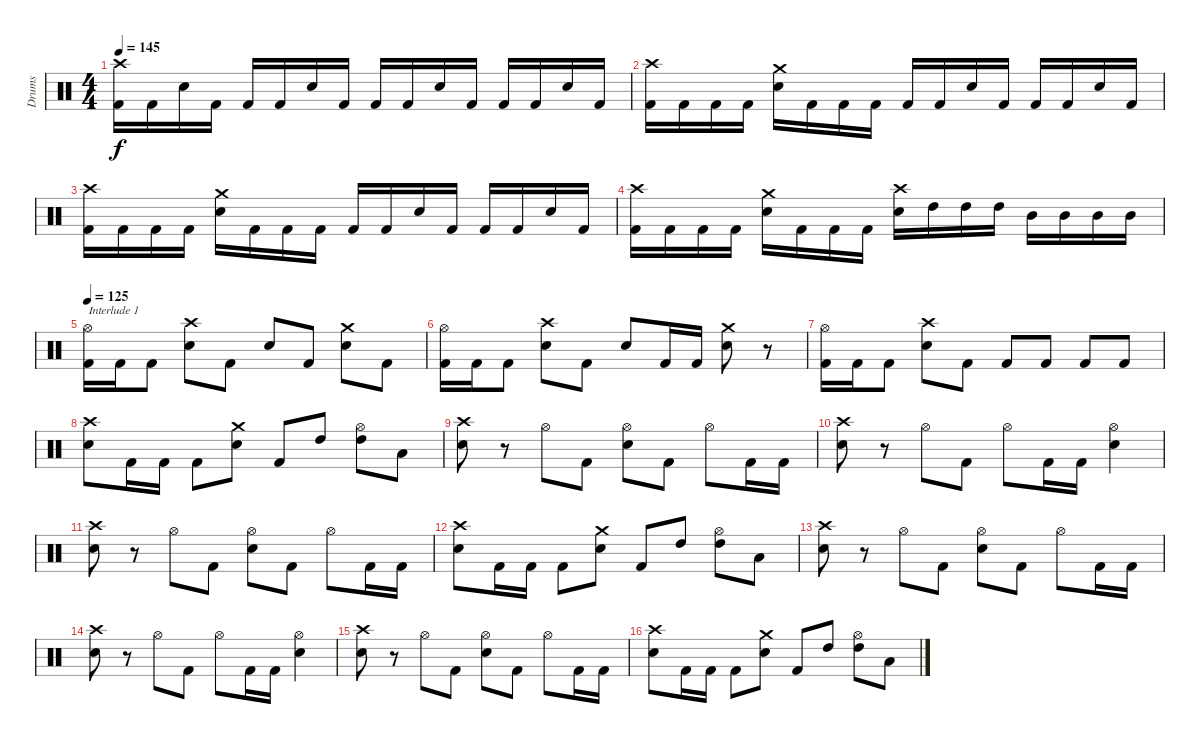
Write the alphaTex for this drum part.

\track ("Drums" "Drums") {instrument percussion}
\staff {score}
\articulation defaults
\ts (4 4)
\tempo 145
\clef neutral
\ks c
("Crash high (hit)" "Kick (hit) 2").16{dy f} "Kick (hit) 2".16 "Snare (hit) 2".16 "Kick (hit) 2".16 "Kick (hit) 2".16 "Kick (hit) 2".16 "Snare (hit) 2".16 "Kick (hit) 2".16 "Kick (hit) 2".16 "Kick (hit) 2".16 "Snare (hit) 2".16 "Kick (hit) 2".16 "Kick (hit) 2".16 "Kick (hit) 2".16 "Snare (hit) 2".16 "Kick (hit) 2".16 |
("Crash high (hit)" "Kick (hit) 2").16 "Kick (hit) 2".16 "Kick (hit) 2".16 "Kick (hit) 2".16 ("Crash medium (hit)" "Snare (hit) 2").16 "Kick (hit) 2".16 "Kick (hit) 2".16 "Kick (hit) 2".16 "Kick (hit) 2".16 "Kick (hit) 2".16 "Snare (hit) 2".16 "Kick (hit) 2".16 "Kick (hit) 2".16 "Kick (hit) 2".16 "Snare (hit) 2".16 "Kick (hit) 2".16 |
("Crash high (hit)" "Kick (hit) 2").16 "Kick (hit) 2".16 "Kick (hit) 2".16 "Kick (hit) 2".16 ("Crash medium (hit)" "Snare (hit) 2").16 "Kick (hit) 2".16 "Kick (hit) 2".16 "Kick (hit) 2".16 "Kick (hit) 2".16 "Kick (hit) 2".16 "Snare (hit) 2".16 "Kick (hit) 2".16 "Kick (hit) 2".16 "Kick (hit) 2".16 "Snare (hit) 2".16 "Kick (hit) 2".16 |
("Crash high (hit)" "Kick (hit) 2").16 "Kick (hit) 2".16 "Kick (hit) 2".16 "Kick (hit) 2".16 ("Crash medium (hit)" "Snare (hit) 2").16 "Kick (hit) 2".16 "Kick (hit) 2".16 "Kick (hit) 2".16 ("Crash high (hit)" "Snare (hit) 2").16 "High Tom (hit)".16 "High Tom (hit)".16 "High Tom (hit)".16 "Mid Tom (hit)".16 "Mid Tom (hit)".16 "Mid Tom (hit)".16 "Mid Tom (hit)".16 |
\tempo 125
("Hi-Hat (open)" "Kick (hit) 2").16{txt "Interlude 1"} "Kick (hit) 2".16 "Kick (hit) 2".8 ("Crash high (hit)" "Snare (hit) 2").8 "Kick (hit) 2".8 "Snare (hit) 2".8 "Kick (hit) 2".8 ("Crash medium (hit)" "Snare (hit) 2").8 "Kick (hit) 2".8 |
("Hi-Hat (open)" "Kick (hit) 2").16 "Kick (hit) 2".16 "Kick (hit) 2".8 ("Crash high (hit)" "Snare (hit) 2").8 "Kick (hit) 2".8 "Snare (hit) 2".8 "Kick (hit) 2".16 "Kick (hit) 2".16 ("Crash medium (hit)" "Snare (hit) 2").8 r.8 |
("Hi-Hat (open)" "Kick (hit) 2").16 "Kick (hit) 2".16 "Kick (hit) 2".8 ("Crash high (hit)" "Snare (hit) 2").8 "Kick (hit) 2".8 "Kick (hit) 2".8 "Kick (hit) 2".8 "Kick (hit) 2".8 "Kick (hit) 2".8 |
("Crash high (hit)" "Snare (hit) 2").8 "Kick (hit) 2".16 "Kick (hit) 2".16 "Kick (hit) 2".8 ("Crash medium (hit)" "Snare (hit) 2").8 "Kick (hit) 2".8 "High Tom (hit)".8 ("Hi-Hat (open)" "High Tom (hit)").8 "Low Tom (hit)".8 |
("Crash high (hit)" "Snare (hit) 2").8 r.8 "Hi-Hat (open)".8 "Kick (hit) 2".8 ("Hi-Hat (open)" "Snare (hit) 2").8 "Kick (hit) 2".8 "Hi-Hat (open)".8 "Kick (hit) 2".16 "Kick (hit) 2".16 |
("Crash high (hit)" "Snare (hit) 2").8 r.8 "Hi-Hat (open)".8 "Kick (hit) 2".8 "Hi-Hat (open)".8 "Kick (hit) 2".16 "Kick (hit) 2".16 ("Hi-Hat (open)" "Snare (hit) 2").4 |
("Crash high (hit)" "Snare (hit) 2").8 r.8 "Hi-Hat (open)".8 "Kick (hit) 2".8 ("Hi-Hat (open)" "Snare (hit) 2").8 "Kick (hit) 2".8 "Hi-Hat (open)".8 "Kick (hit) 2".16 "Kick (hit) 2".16 |
("Crash high (hit)" "Snare (hit) 2").8 "Kick (hit) 2".16 "Kick (hit) 2".16 "Kick (hit) 2".8 ("Crash medium (hit)" "Snare (hit) 2").8 "Kick (hit) 2".8 "High Tom (hit)".8 ("Hi-Hat (open)" "High Tom (hit)").8 "Low Tom (hit)".8 |
("Crash high (hit)" "Snare (hit) 2").8 r.8 "Hi-Hat (open)".8 "Kick (hit) 2".8 ("Hi-Hat (open)" "Snare (hit) 2").8 "Kick (hit) 2".8 "Hi-Hat (open)".8 "Kick (hit) 2".16 "Kick (hit) 2".16 |
("Crash high (hit)" "Snare (hit) 2").8 r.8 "Hi-Hat (open)".8 "Kick (hit) 2".8 "Hi-Hat (open)".8 "Kick (hit) 2".16 "Kick (hit) 2".16 ("Hi-Hat (open)" "Snare (hit) 2").4 |
("Crash high (hit)" "Snare (hit) 2").8 r.8 "Hi-Hat (open)".8 "Kick (hit) 2".8 ("Hi-Hat (open)" "Snare (hit) 2").8 "Kick (hit) 2".8 "Hi-Hat (open)".8 "Kick (hit) 2".16 "Kick (hit) 2".16 |
("Crash high (hit)" "Snare (hit) 2").8 "Kick (hit) 2".16 "Kick (hit) 2".16 "Kick (hit) 2".8 ("Crash medium (hit)" "Snare (hit) 2").8 "Kick (hit) 2".8 "High Tom (hit)".8 ("Hi-Hat (open)" "High Tom (hit)").8 "Low Tom (hit)".8
